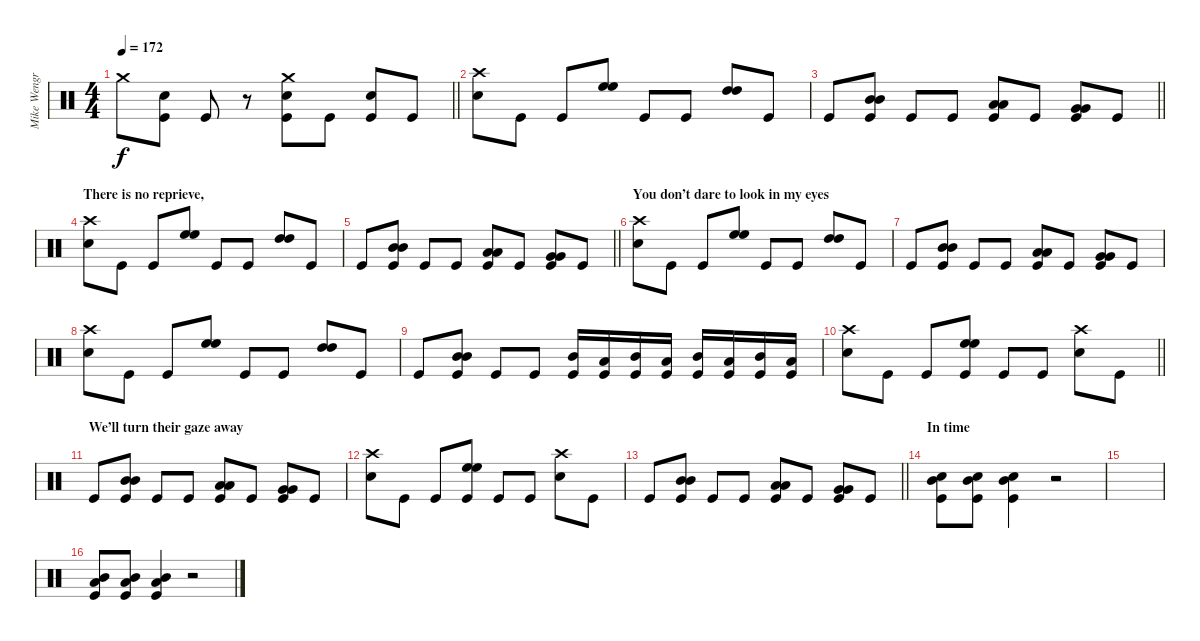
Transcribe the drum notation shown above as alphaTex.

\track ("Mike Wengren - Drums" "Mike Wengr") {instrument percussion}
\staff {score}
\articulation defaults
\ts (4 4)
\tempo 172
\clef neutral
\barLineRight lightlight
\ks c "Crash medium (hit)".8{dy f}
("Snare (hit) 2" "Kick (hit)").8 "Kick (hit)".8 r.8 ("Crash medium (hit)" "Snare (hit) 2" "Kick (hit)").8 "Kick (hit)".8 ("Snare (hit) 2" "Kick (hit)").8 "Kick (hit)".8 |
("Crash high (hit)" "Snare (hit) 2").8 "Kick (hit)".8 "Kick (hit)".8 ("High Floor Tom (hit)" "High Floor Tom (hit)").8 "Kick (hit)".8 "Kick (hit)".8 ("High Tom (hit)" "High Tom (hit)").8 "Kick (hit)".8 |
\barLineRight lightlight "Kick (hit)".8
("Mid Tom (hit)" "Mid Tom (hit)" "Kick (hit)").8 "Kick (hit)".8 "Kick (hit)".8 ("Low Tom (hit)" "Low Tom (hit)" "Kick (hit)").8 "Kick (hit)".8 ("Very Low Tom (hit)" "Very Low Tom (hit)" "Kick (hit)").8 "Kick (hit)".8 |
\section ("" "There is no reprieve,")
("Crash high (hit)" "Snare (hit) 2").8 "Kick (hit)".8 "Kick (hit)".8 ("High Floor Tom (hit)" "High Floor Tom (hit)").8 "Kick (hit)".8 "Kick (hit)".8 ("High Tom (hit)" "High Tom (hit)").8 "Kick (hit)".8 |
\barLineRight lightlight "Kick (hit)".8
("Mid Tom (hit)" "Mid Tom (hit)" "Kick (hit)").8 "Kick (hit)".8 "Kick (hit)".8 ("Low Tom (hit)" "Low Tom (hit)" "Kick (hit)").8 "Kick (hit)".8 ("Very Low Tom (hit)" "Very Low Tom (hit)" "Kick (hit)").8 "Kick (hit)".8 |
\section ("" "You don’t dare to look in my eyes")
("Crash high (hit)" "Snare (hit) 2").8 "Kick (hit)".8 "Kick (hit)".8 ("High Floor Tom (hit)" "High Floor Tom (hit)").8 "Kick (hit)".8 "Kick (hit)".8 ("High Tom (hit)" "High Tom (hit)").8 "Kick (hit)".8 |
"Kick (hit)".8 ("Mid Tom (hit)" "Mid Tom (hit)" "Kick (hit)").8 "Kick (hit)".8 "Kick (hit)".8 ("Low Tom (hit)" "Low Tom (hit)" "Kick (hit)").8 "Kick (hit)".8 ("Very Low Tom (hit)" "Very Low Tom (hit)" "Kick (hit)").8 "Kick (hit)".8 |
("Crash high (hit)" "Snare (hit) 2").8 "Kick (hit)".8 "Kick (hit)".8 ("High Floor Tom (hit)" "High Floor Tom (hit)").8 "Kick (hit)".8 "Kick (hit)".8 ("High Tom (hit)" "High Tom (hit)").8 "Kick (hit)".8 |
"Kick (hit)".8 ("Mid Tom (hit)" "Mid Tom (hit)" "Kick (hit)").8 "Kick (hit)".8 "Kick (hit)".8 ("Mid Tom (hit)" "Kick (hit)").16 ("Low Tom (hit)" "Kick (hit)").16 ("Mid Tom (hit)" "Kick (hit)").16 ("Low Tom (hit)" "Kick (hit)").16 ("Mid Tom (hit)" "Kick (hit)").16 ("Low Tom (hit)" "Kick (hit)").16 ("Mid Tom (hit)" "Kick (hit)").16 ("Low Tom (hit)" "Kick (hit)").16 |
\barLineRight lightlight
("Crash high (hit)" "Snare (hit) 2").8 "Kick (hit)".8 "Kick (hit)".8 ("High Floor Tom (hit)" "High Floor Tom (hit)" "Kick (hit)").8 "Kick (hit)".8 "Kick (hit)".8 ("Crash high (hit)" "Snare (hit) 2").8 "Kick (hit)".8 |
\section ("" "We’ll turn their gaze away")
"Kick (hit)".8 ("Mid Tom (hit)" "Mid Tom (hit)" "Kick (hit)").8 "Kick (hit)".8 "Kick (hit)".8 ("Low Tom (hit)" "Low Tom (hit)" "Kick (hit)").8 "Kick (hit)".8 ("Very Low Tom (hit)" "Very Low Tom (hit)" "Kick (hit)").8 "Kick (hit)".8 |
("Crash high (hit)" "Snare (hit) 2").8 "Kick (hit)".8 "Kick (hit)".8 ("High Floor Tom (hit)" "High Floor Tom (hit)" "Kick (hit)").8 "Kick (hit)".8 "Kick (hit)".8 ("Crash high (hit)" "Snare (hit) 2").8 "Kick (hit)".8 |
\barLineRight lightlight "Kick (hit)".8
("Mid Tom (hit)" "Mid Tom (hit)" "Kick (hit)").8 "Kick (hit)".8 "Kick (hit)".8 ("Low Tom (hit)" "Low Tom (hit)" "Kick (hit)").8 "Kick (hit)".8 ("Very Low Tom (hit)" "Very Low Tom (hit)" "Kick (hit)").8 "Kick (hit)".8 |
\section ("" "In time")
("Snare (hit) 2" "Mid Tom (hit)" "Kick (hit)").8 ("Snare (hit) 2" "Mid Tom (hit)" "Kick (hit)").8 ("Snare (hit) 2" "Mid Tom (hit)" "Kick (hit)").4 r.2 |
|
("Low Tom (hit)" "Mid Tom (hit)" "Kick (hit)").8 ("Low Tom (hit)" "Mid Tom (hit)" "Kick (hit)").8 ("Low Tom (hit)" "Mid Tom (hit)" "Kick (hit)").4 r.2
